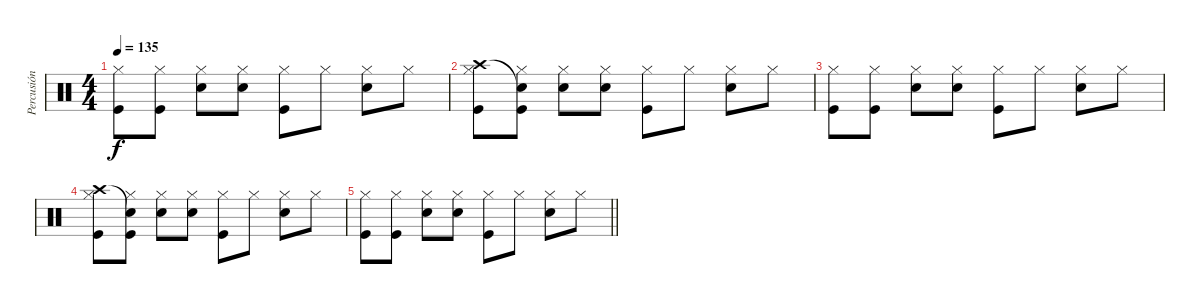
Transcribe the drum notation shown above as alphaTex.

\track ("Percusión" "Percusión") {instrument percussion}
\staff {score}
\articulation defaults
\ts (4 4)
\tempo 135
\clef neutral
\ks c
("Hi-Hat (closed)" "Kick (hit)").8{dy f} ("Hi-Hat (closed)" "Kick (hit)").8 ("Hi-Hat (closed)" "Snare (hit) 2").8 ("Hi-Hat (closed)" "Snare (hit) 2").8 ("Hi-Hat (closed)" "Kick (hit)").8 "Hi-Hat (closed)".8 ("Hi-Hat (closed)" "Snare (hit) 2").8 "Hi-Hat (closed)".8 |
("Hi-Hat (closed)" "Crash high (hit)" "Kick (hit)").8 ("Hi-Hat (closed)" "Snare (hit)"{t} "Kick (hit)").8 ("Hi-Hat (closed)" "Snare (hit) 2").8 ("Hi-Hat (closed)" "Snare (hit) 2").8 ("Hi-Hat (closed)" "Kick (hit)").8 "Hi-Hat (closed)".8 ("Hi-Hat (closed)" "Snare (hit) 2").8 "Hi-Hat (closed)".8 |
("Hi-Hat (closed)" "Kick (hit)").8 ("Hi-Hat (closed)" "Kick (hit)").8 ("Hi-Hat (closed)" "Snare (hit) 2").8 ("Hi-Hat (closed)" "Snare (hit) 2").8 ("Hi-Hat (closed)" "Kick (hit)").8 "Hi-Hat (closed)".8 ("Hi-Hat (closed)" "Snare (hit) 2").8 "Hi-Hat (closed)".8 |
("Hi-Hat (closed)" "Crash high (hit)" "Kick (hit)").8 ("Hi-Hat (closed)" "Snare (hit)"{t} "Kick (hit)").8 ("Hi-Hat (closed)" "Snare (hit) 2").8 ("Hi-Hat (closed)" "Snare (hit) 2").8 ("Hi-Hat (closed)" "Kick (hit)").8 "Hi-Hat (closed)".8 ("Hi-Hat (closed)" "Snare (hit) 2").8 "Hi-Hat (closed)".8 |
\barLineRight lightlight
("Hi-Hat (closed)" "Kick (hit)").8 ("Hi-Hat (closed)" "Kick (hit)").8 ("Hi-Hat (closed)" "Snare (hit) 2").8 ("Hi-Hat (closed)" "Snare (hit) 2").8 ("Hi-Hat (closed)" "Kick (hit)").8 "Hi-Hat (closed)".8 ("Hi-Hat (closed)" "Snare (hit) 2").8 "Hi-Hat (closed)".8
